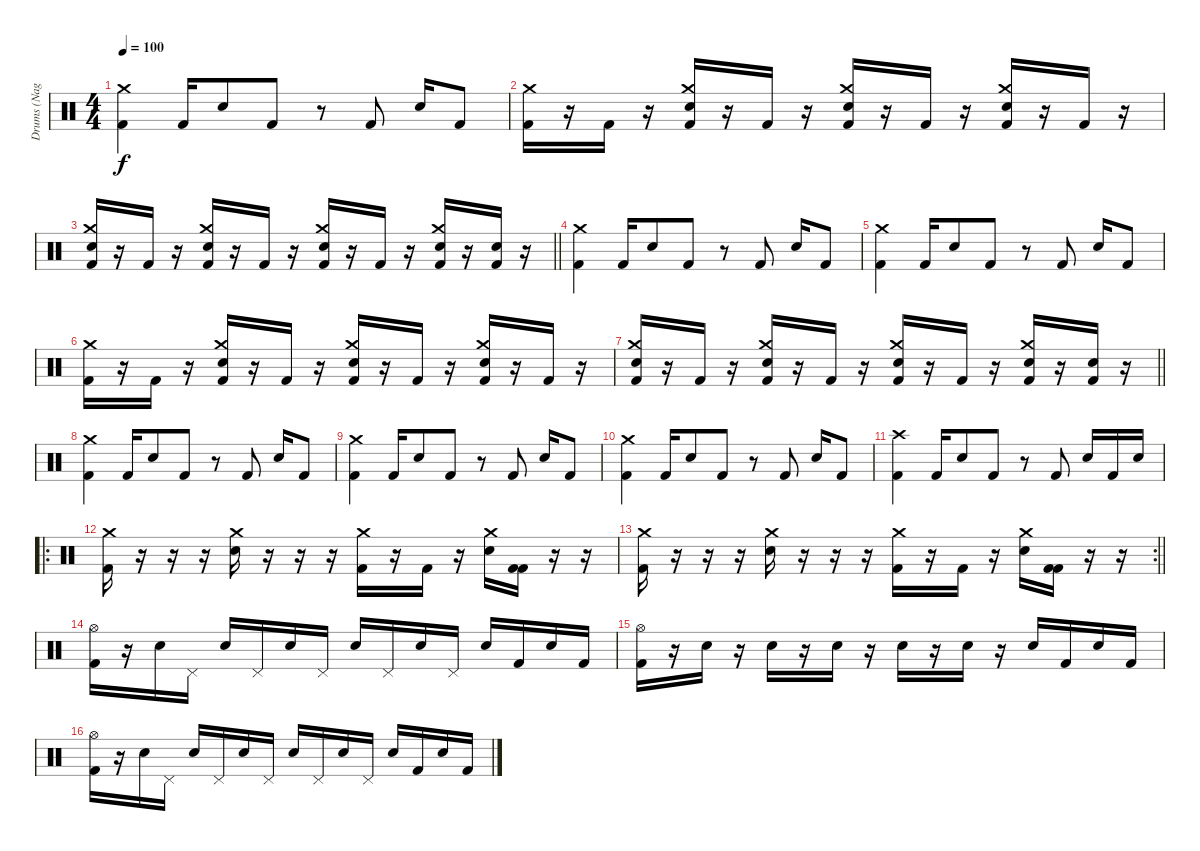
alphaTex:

\track ("Drums (Nagy Dávid)" "Drums (Nag") {instrument percussion}
\staff {score}
\articulation defaults
\ts (4 4)
\tempo 100
\clef neutral
\ks c
("Kick (hit) 2" "Crash medium (hit)").4{dy f} "Kick (hit) 2".16 "Electric Snare (hit)".8 "Kick (hit) 2".8 r.8 "Kick (hit) 2".8 "Electric Snare (hit)".16 "Kick (hit) 2".8 |
("Kick (hit) 2" "Crash medium (hit)").16 r.16 "Kick (hit) 2".16 r.16 ("Kick (hit) 2" "Electric Snare (hit)" "Crash medium (hit)").16 r.16 "Kick (hit) 2".16 r.16 ("Kick (hit) 2" "Electric Snare (hit)" "Crash medium (hit)").16 r.16 "Kick (hit) 2".16 r.16 ("Kick (hit) 2" "Electric Snare (hit)" "Crash medium (hit)").16 r.16 "Kick (hit) 2".16 r.16 |
\barLineRight lightlight
("Kick (hit) 2" "Electric Snare (hit)" "Crash medium (hit)").16 r.16 "Kick (hit) 2".16 r.16 ("Kick (hit) 2" "Electric Snare (hit)" "Crash medium (hit)").16 r.16 "Kick (hit) 2".16 r.16 ("Kick (hit) 2" "Electric Snare (hit)" "Crash medium (hit)").16 r.16 "Kick (hit) 2".16 r.16 ("Kick (hit) 2" "Electric Snare (hit)" "Crash medium (hit)").16 r.16 ("Kick (hit) 2" "Electric Snare (hit)").16 r.16 |
("Kick (hit) 2" "Crash medium (hit)").4 "Kick (hit) 2".16 "Electric Snare (hit)".8 "Kick (hit) 2".8 r.8 "Kick (hit) 2".8 "Electric Snare (hit)".16 "Kick (hit) 2".8 |
("Kick (hit) 2" "Crash medium (hit)").4 "Kick (hit) 2".16 "Electric Snare (hit)".8 "Kick (hit) 2".8 r.8 "Kick (hit) 2".8 "Electric Snare (hit)".16 "Kick (hit) 2".8 |
("Kick (hit) 2" "Crash medium (hit)").16 r.16 "Kick (hit) 2".16 r.16 ("Kick (hit) 2" "Electric Snare (hit)" "Crash medium (hit)").16 r.16 "Kick (hit) 2".16 r.16 ("Kick (hit) 2" "Electric Snare (hit)" "Crash medium (hit)").16 r.16 "Kick (hit) 2".16 r.16 ("Kick (hit) 2" "Electric Snare (hit)" "Crash medium (hit)").16 r.16 "Kick (hit) 2".16 r.16 |
\barLineRight lightlight
("Kick (hit) 2" "Electric Snare (hit)" "Crash medium (hit)").16 r.16 "Kick (hit) 2".16 r.16 ("Kick (hit) 2" "Electric Snare (hit)" "Crash medium (hit)").16 r.16 "Kick (hit) 2".16 r.16 ("Kick (hit) 2" "Electric Snare (hit)" "Crash medium (hit)").16 r.16 "Kick (hit) 2".16 r.16 ("Kick (hit) 2" "Electric Snare (hit)" "Crash medium (hit)").16 r.16 ("Kick (hit) 2" "Electric Snare (hit)").16 r.16 |
("Kick (hit) 2" "Crash medium (hit)").4 "Kick (hit) 2".16 "Electric Snare (hit)".8 "Kick (hit) 2".8 r.8 "Kick (hit) 2".8 "Electric Snare (hit)".16 "Kick (hit) 2".8 |
("Kick (hit) 2" "Crash medium (hit)").4 "Kick (hit) 2".16 "Electric Snare (hit)".8 "Kick (hit) 2".8 r.8 "Kick (hit) 2".8 "Electric Snare (hit)".16 "Kick (hit) 2".8 |
("Kick (hit) 2" "Crash medium (hit)").4 "Kick (hit) 2".16 "Electric Snare (hit)".8 "Kick (hit) 2".8 r.8 "Kick (hit) 2".8 "Electric Snare (hit)".16 "Kick (hit) 2".8 |
("Kick (hit) 2" "Crash high (hit)").4 "Kick (hit) 2".16 "Electric Snare (hit)".8 "Kick (hit) 2".8 r.8 "Kick (hit) 2".8 "Electric Snare (hit)".16 "Kick (hit) 2".16 "Electric Snare (hit)".16 |
\ro
("Kick (hit) 2" "Crash medium (hit)").16 r.16 r.16 r.16 ("Electric Snare (hit)" "Crash medium (hit)").16 r.16 r.16 r.16 ("Kick (hit) 2" "Crash medium (hit)").16 r.16 "Kick (hit) 2".16 r.16 ("Electric Snare (hit)" "Crash medium (hit)").16 ("Kick (hit) 2" "Kick (hit) 2").16 r.16 r.16 |
\rc 2
\barLineRight lightlight
("Kick (hit) 2" "Crash medium (hit)").16 r.16 r.16 r.16 ("Electric Snare (hit)" "Crash medium (hit)").16 r.16 r.16 r.16 ("Kick (hit) 2" "Crash medium (hit)").16 r.16 "Kick (hit) 2".16 r.16 ("Electric Snare (hit)" "Crash medium (hit)").16 ("Kick (hit) 2" "Kick (hit) 2").16 r.16 r.16 |
("Kick (hit) 2" "Hi-Hat (open)").16 r.16 "Electric Snare (hit)".16 "Pedal Hi-Hat (hit)".16 "Electric Snare (hit)".16 "Pedal Hi-Hat (hit)".16 "Electric Snare (hit)".16 "Pedal Hi-Hat (hit)".16 "Electric Snare (hit)".16 "Pedal Hi-Hat (hit)".16 "Electric Snare (hit)".16 "Pedal Hi-Hat (hit)".16 "Electric Snare (hit)".16 "Kick (hit) 2".16 "Electric Snare (hit)".16 "Kick (hit) 2".16 |
("Kick (hit) 2" "Hi-Hat (open)").16 r.16 "Electric Snare (hit)".16 r.16 "Electric Snare (hit)".16 r.16 "Electric Snare (hit)".16 r.16 "Electric Snare (hit)".16 r.16 "Electric Snare (hit)".16 r.16 "Electric Snare (hit)".16 "Kick (hit) 2".16 "Electric Snare (hit)".16 "Kick (hit) 2".16 |
("Kick (hit) 2" "Hi-Hat (open)").16 r.16 "Electric Snare (hit)".16 "Pedal Hi-Hat (hit)".16 "Electric Snare (hit)".16 "Pedal Hi-Hat (hit)".16 "Electric Snare (hit)".16 "Pedal Hi-Hat (hit)".16 "Electric Snare (hit)".16 "Pedal Hi-Hat (hit)".16 "Electric Snare (hit)".16 "Pedal Hi-Hat (hit)".16 "Electric Snare (hit)".16 "Kick (hit) 2".16 "Electric Snare (hit)".16 "Kick (hit) 2".16
